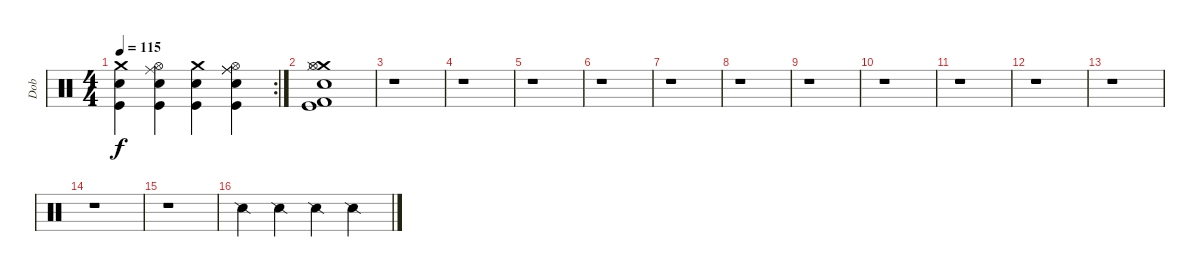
\track ("Dob" "Dob") {instrument percussion}
\staff {score}
\articulation defaults
\rc 2
\ts (4 4)
\tempo 115
\clef neutral
\ks c
("Crash medium (hit)" "Snare (hit) 2" "Kick (hit)").4{dy f} ("Hi-Hat (open)" "Ride (middle)" "Snare (hit) 2" "Kick (hit)").4 ("Crash medium (hit)" "Snare (hit) 2" "Kick (hit)").4 ("Ride (middle)" "Hi-Hat (open)" "Ride (middle)" "Snare (hit) 2" "Kick (hit)").4 |
("Crash medium (hit)" "Hi-Hat (closed)" "Hi-Hat (open)" "Snare (hit) 2" "Kick (hit) 2" "Kick (hit)").1 |
r.1 |
r.1 |
r.1 |
r.1 |
r.1 |
r.1 |
r.1 |
r.1 |
r.1 |
r.1 |
r.1 |
r.1 |
r.1 |
"Snare (side stick) 2".4 "Snare (side stick) 2".4 "Snare (side stick) 2".4 "Snare (side stick) 2".4
